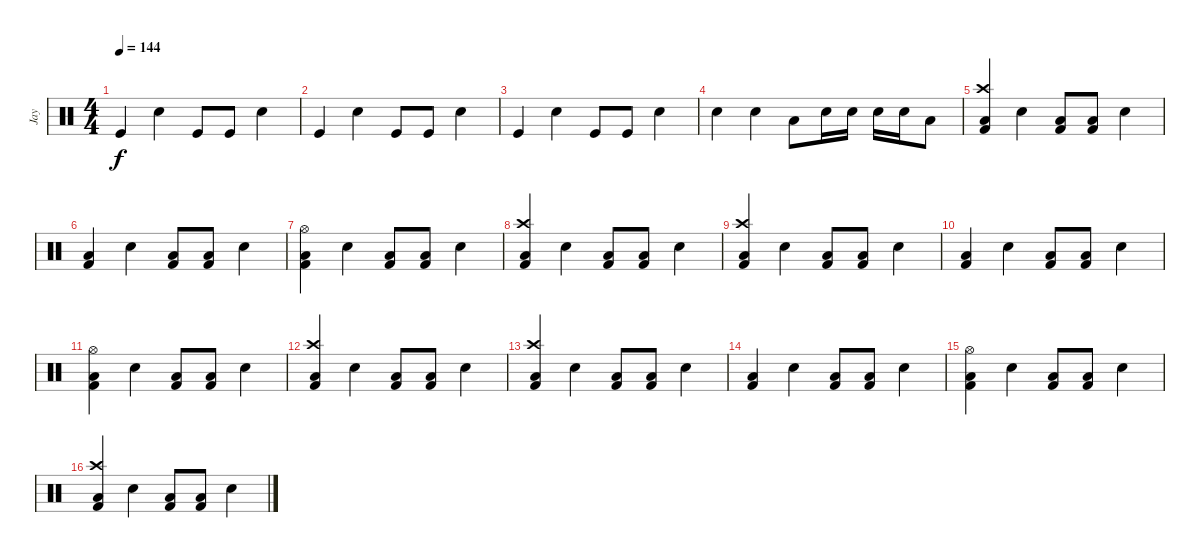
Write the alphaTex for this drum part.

\track ("Jay" "Jay") {instrument percussion}
\staff {score}
\articulation defaults
\ts (4 4)
\tempo 144
\clef neutral
\ks c "Kick (hit)".4{dy f} "Electric Snare (hit)".4 "Kick (hit)".8 "Kick (hit)".8 "Electric Snare (hit)".4
|
"Kick (hit)".4 "Electric Snare (hit)".4 "Kick (hit)".8 "Kick (hit)".8 "Electric Snare (hit)".4 |
"Kick (hit)".4 "Electric Snare (hit)".4 "Kick (hit)".8 "Kick (hit)".8 "Electric Snare (hit)".4 |
"Snare (hit) 2".4 "Electric Snare (hit)".4 "Low Tom (hit)".8 "Electric Snare (hit)".16 "Electric Snare (hit)".16 "Electric Snare (hit)".16 "Electric Snare (hit)".16 "Low Tom (hit)".8 |
("Crash high (hit)" "Low Tom (hit)" "Kick (hit) 2").4 "Electric Snare (hit)".4 ("Low Tom (hit)" "Kick (hit) 2").8 ("Low Tom (hit)" "Kick (hit) 2").8 "Electric Snare (hit)".4 |
("Low Tom (hit)" "Kick (hit) 2").4 "Electric Snare (hit)".4 ("Low Tom (hit)" "Kick (hit) 2").8 ("Low Tom (hit)" "Kick (hit) 2").8 "Electric Snare (hit)".4 |
("Hi-Hat (open)" "Low Tom (hit)" "Kick (hit) 2").4 "Electric Snare (hit)".4 ("Low Tom (hit)" "Kick (hit) 2").8 ("Low Tom (hit)" "Kick (hit) 2").8 "Electric Snare (hit)".4 |
("Crash high (hit)" "Low Tom (hit)" "Kick (hit) 2").4 "Electric Snare (hit)".4 ("Low Tom (hit)" "Kick (hit) 2").8 ("Low Tom (hit)" "Kick (hit) 2").8 "Electric Snare (hit)".4 |
("Crash high (hit)" "Low Tom (hit)" "Kick (hit) 2").4 "Electric Snare (hit)".4 ("Low Tom (hit)" "Kick (hit) 2").8 ("Low Tom (hit)" "Kick (hit) 2").8 "Electric Snare (hit)".4 |
("Low Tom (hit)" "Kick (hit) 2").4 "Electric Snare (hit)".4 ("Low Tom (hit)" "Kick (hit) 2").8 ("Low Tom (hit)" "Kick (hit) 2").8 "Electric Snare (hit)".4 |
("Hi-Hat (open)" "Low Tom (hit)" "Kick (hit) 2").4 "Electric Snare (hit)".4 ("Low Tom (hit)" "Kick (hit) 2").8 ("Low Tom (hit)" "Kick (hit) 2").8 "Electric Snare (hit)".4 |
("Crash high (hit)" "Low Tom (hit)" "Kick (hit) 2").4 "Electric Snare (hit)".4 ("Low Tom (hit)" "Kick (hit) 2").8 ("Low Tom (hit)" "Kick (hit) 2").8 "Electric Snare (hit)".4 |
("Crash high (hit)" "Low Tom (hit)" "Kick (hit) 2").4 "Electric Snare (hit)".4 ("Low Tom (hit)" "Kick (hit) 2").8 ("Low Tom (hit)" "Kick (hit) 2").8 "Electric Snare (hit)".4 |
("Low Tom (hit)" "Kick (hit) 2").4 "Electric Snare (hit)".4 ("Low Tom (hit)" "Kick (hit) 2").8 ("Low Tom (hit)" "Kick (hit) 2").8 "Electric Snare (hit)".4 |
("Hi-Hat (open)" "Low Tom (hit)" "Kick (hit) 2").4 "Electric Snare (hit)".4 ("Low Tom (hit)" "Kick (hit) 2").8 ("Low Tom (hit)" "Kick (hit) 2").8 "Electric Snare (hit)".4 |
("Crash high (hit)" "Low Tom (hit)" "Kick (hit) 2").4 "Electric Snare (hit)".4 ("Low Tom (hit)" "Kick (hit) 2").8 ("Low Tom (hit)" "Kick (hit) 2").8 "Electric Snare (hit)".4
